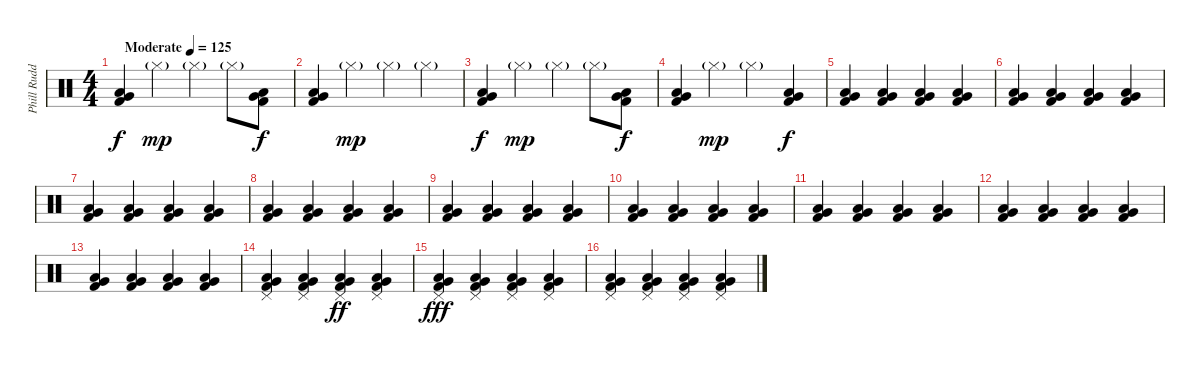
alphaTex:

\track ("Phill Rudd" "Phill Rudd") {instrument percussion}
\staff {score}
\articulation defaults
\ts (4 4)
\tempo (125 "Moderate")
\clef neutral
\ks c
("Kick (hit) 2" "Very Low Tom (hit)" "Low Floor Tom (hit)").4{dy f} "Hi-Hat (closed)"{g}.4{dy mp} "Hi-Hat (closed)"{g}.4 "Hi-Hat (closed)"{g}.8 ("Kick (hit) 2" "Very Low Tom (hit)" "Low Floor Tom (hit)").8{dy f} |
("Kick (hit) 2" "Very Low Tom (hit)" "Low Floor Tom (hit)").4 "Hi-Hat (closed)"{g}.4{dy mp} "Hi-Hat (closed)"{g}.4 "Hi-Hat (closed)"{g}.4 |
("Kick (hit) 2" "Very Low Tom (hit)" "Low Floor Tom (hit)").4{dy f} "Hi-Hat (closed)"{g}.4{dy mp} "Hi-Hat (closed)"{g}.4 "Hi-Hat (closed)"{g}.8 ("Kick (hit) 2" "Very Low Tom (hit)" "Low Floor Tom (hit)").8{dy f} |
("Kick (hit) 2" "Very Low Tom (hit)" "Low Floor Tom (hit)").4 "Hi-Hat (closed)"{g}.4{dy mp} "Hi-Hat (closed)"{g}.4 ("Kick (hit) 2" "Very Low Tom (hit)" "Low Floor Tom (hit)").4{dy f} |
("Kick (hit) 2" "Very Low Tom (hit)" "Low Floor Tom (hit)").4 ("Kick (hit) 2" "Very Low Tom (hit)" "Low Floor Tom (hit)").4 ("Kick (hit) 2" "Very Low Tom (hit)" "Low Floor Tom (hit)").4 ("Kick (hit) 2" "Very Low Tom (hit)" "Low Floor Tom (hit)").4 |
("Kick (hit) 2" "Very Low Tom (hit)" "Low Floor Tom (hit)").4 ("Kick (hit) 2" "Very Low Tom (hit)" "Low Floor Tom (hit)").4 ("Kick (hit) 2" "Very Low Tom (hit)" "Low Floor Tom (hit)").4 ("Kick (hit) 2" "Very Low Tom (hit)" "Low Floor Tom (hit)").4 |
("Kick (hit) 2" "Very Low Tom (hit)" "Low Floor Tom (hit)").4 ("Kick (hit) 2" "Very Low Tom (hit)" "Low Floor Tom (hit)").4 ("Kick (hit) 2" "Very Low Tom (hit)" "Low Floor Tom (hit)").4 ("Kick (hit) 2" "Very Low Tom (hit)" "Low Floor Tom (hit)").4 |
("Kick (hit) 2" "Very Low Tom (hit)" "Low Floor Tom (hit)").4 ("Kick (hit) 2" "Very Low Tom (hit)" "Low Floor Tom (hit)").4 ("Kick (hit) 2" "Very Low Tom (hit)" "Low Floor Tom (hit)").4 ("Kick (hit) 2" "Very Low Tom (hit)" "Low Floor Tom (hit)").4 |
("Kick (hit) 2" "Very Low Tom (hit)" "Low Floor Tom (hit)").4 ("Kick (hit) 2" "Very Low Tom (hit)" "Low Floor Tom (hit)").4 ("Kick (hit) 2" "Very Low Tom (hit)" "Low Floor Tom (hit)").4 ("Kick (hit) 2" "Very Low Tom (hit)" "Low Floor Tom (hit)").4 |
("Kick (hit) 2" "Very Low Tom (hit)" "Low Floor Tom (hit)").4 ("Kick (hit) 2" "Very Low Tom (hit)" "Low Floor Tom (hit)").4 ("Kick (hit) 2" "Very Low Tom (hit)" "Low Floor Tom (hit)").4 ("Kick (hit) 2" "Very Low Tom (hit)" "Low Floor Tom (hit)").4 |
("Kick (hit) 2" "Very Low Tom (hit)" "Low Floor Tom (hit)").4 ("Kick (hit) 2" "Very Low Tom (hit)" "Low Floor Tom (hit)").4 ("Kick (hit) 2" "Very Low Tom (hit)" "Low Floor Tom (hit)").4 ("Kick (hit) 2" "Very Low Tom (hit)" "Low Floor Tom (hit)").4 |
("Kick (hit) 2" "Very Low Tom (hit)" "Low Floor Tom (hit)").4 ("Kick (hit) 2" "Very Low Tom (hit)" "Low Floor Tom (hit)").4 ("Kick (hit) 2" "Very Low Tom (hit)" "Low Floor Tom (hit)").4 ("Kick (hit) 2" "Very Low Tom (hit)" "Low Floor Tom (hit)").4 |
("Kick (hit) 2" "Very Low Tom (hit)" "Low Floor Tom (hit)").4 ("Kick (hit) 2" "Very Low Tom (hit)" "Low Floor Tom (hit)").4 ("Kick (hit) 2" "Very Low Tom (hit)" "Low Floor Tom (hit)").4 ("Kick (hit) 2" "Very Low Tom (hit)" "Low Floor Tom (hit)").4 |
("Kick (hit) 2" "Very Low Tom (hit)" "Low Floor Tom (hit)" "Pedal Hi-Hat (hit)").4 ("Kick (hit) 2" "Very Low Tom (hit)" "Low Floor Tom (hit)" "Pedal Hi-Hat (hit)").4 ("Kick (hit) 2" "Very Low Tom (hit)" "Low Floor Tom (hit)" "Pedal Hi-Hat (hit)").4{dy ff} ("Kick (hit) 2" "Very Low Tom (hit)" "Low Floor Tom (hit)" "Pedal Hi-Hat (hit)").4 |
("Kick (hit) 2" "Very Low Tom (hit)" "Low Floor Tom (hit)" "Pedal Hi-Hat (hit)").4{dy fff} ("Kick (hit) 2" "Very Low Tom (hit)" "Low Floor Tom (hit)" "Pedal Hi-Hat (hit)").4 ("Kick (hit) 2" "Very Low Tom (hit)" "Low Floor Tom (hit)" "Pedal Hi-Hat (hit)").4 ("Kick (hit) 2" "Very Low Tom (hit)" "Low Floor Tom (hit)" "Pedal Hi-Hat (hit)").4 |
("Kick (hit) 2" "Very Low Tom (hit)" "Low Floor Tom (hit)" "Pedal Hi-Hat (hit)").4 ("Kick (hit) 2" "Very Low Tom (hit)" "Low Floor Tom (hit)" "Pedal Hi-Hat (hit)").4 ("Kick (hit) 2" "Very Low Tom (hit)" "Low Floor Tom (hit)" "Pedal Hi-Hat (hit)").4 ("Kick (hit) 2" "Very Low Tom (hit)" "Low Floor Tom (hit)" "Pedal Hi-Hat (hit)").4
